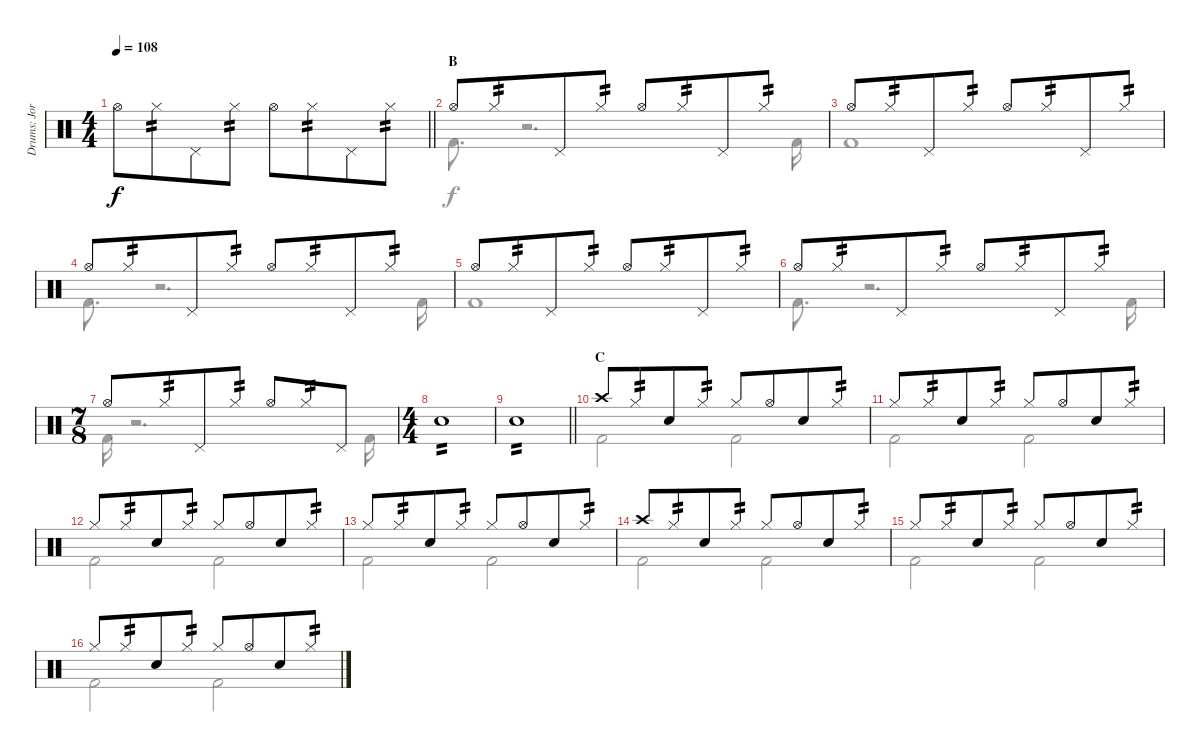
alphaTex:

\track ("Drums: Jorg" "Drums: Jor") {instrument percussion}
\staff {score}
\articulation defaults
\voice
\ts (4 4)
\tempo 108
\clef neutral
\barLineRight lightlight
\ks c "Hi-Hat (open)".8{dy f} "Hi-Hat (closed)".8{tp 2 beam merge} "Pedal Hi-Hat (hit)".8 "Hi-Hat (closed)".8{tp 2} "Hi-Hat (open)".8 "Hi-Hat (closed)".8{tp 2 beam merge} "Pedal Hi-Hat (hit)".8 "Hi-Hat (closed)".8{tp 2}
|
\section ("" "B")
"Hi-Hat (open)".8 "Hi-Hat (closed)".8{tp 2 beam merge} "Pedal Hi-Hat (hit)".8 "Hi-Hat (closed)".8{tp 2} "Hi-Hat (open)".8 "Hi-Hat (closed)".8{tp 2 beam merge} "Pedal Hi-Hat (hit)".8 "Hi-Hat (closed)".8{tp 2} |
"Hi-Hat (open)".8 "Hi-Hat (closed)".8{tp 2 beam merge} "Pedal Hi-Hat (hit)".8 "Hi-Hat (closed)".8{tp 2} "Hi-Hat (open)".8 "Hi-Hat (closed)".8{tp 2 beam merge} "Pedal Hi-Hat (hit)".8 "Hi-Hat (closed)".8{tp 2} |
"Hi-Hat (open)".8 "Hi-Hat (closed)".8{tp 2 beam merge} "Pedal Hi-Hat (hit)".8 "Hi-Hat (closed)".8{tp 2} "Hi-Hat (open)".8 "Hi-Hat (closed)".8{tp 2 beam merge} "Pedal Hi-Hat (hit)".8 "Hi-Hat (closed)".8{tp 2} |
"Hi-Hat (open)".8 "Hi-Hat (closed)".8{tp 2 beam merge} "Pedal Hi-Hat (hit)".8 "Hi-Hat (closed)".8{tp 2} "Hi-Hat (open)".8 "Hi-Hat (closed)".8{tp 2 beam merge} "Pedal Hi-Hat (hit)".8 "Hi-Hat (closed)".8{tp 2} |
"Hi-Hat (open)".8 "Hi-Hat (closed)".8{tp 2 beam merge} "Pedal Hi-Hat (hit)".8 "Hi-Hat (closed)".8{tp 2} "Hi-Hat (open)".8 "Hi-Hat (closed)".8{tp 2 beam merge} "Pedal Hi-Hat (hit)".8 "Hi-Hat (closed)".8{tp 2} |
\ts (7 8)
"Hi-Hat (open)".8 "Hi-Hat (closed)".8{tp 2 beam merge} "Pedal Hi-Hat (hit)".8 "Hi-Hat (closed)".8{tp 2} "Hi-Hat (open)".8 "Hi-Hat (closed)".8{tp 2 beam merge} "Pedal Hi-Hat (hit)".8 |
\ts (4 4)
"Snare (hit) 2".1{tp 2} |
\barLineRight lightlight "Snare (hit) 2".1{tp 2}
|
\section ("" "C")
"Crash high (hit)".8 "Hi-Hat (closed)".8{tp 2 beam merge} "Snare (hit) 2".8 "Hi-Hat (closed)".8{tp 2} "Hi-Hat (closed)".8 "Hi-Hat (open)".8{beam merge} "Snare (hit) 2".8 "Hi-Hat (closed)".8{tp 2} |
"Hi-Hat (closed)".8 "Hi-Hat (closed)".8{tp 2 beam merge} "Snare (hit) 2".8 "Hi-Hat (closed)".8{tp 2} "Hi-Hat (closed)".8 "Hi-Hat (open)".8{beam merge} "Snare (hit) 2".8 "Hi-Hat (closed)".8{tp 2} |
"Hi-Hat (closed)".8 "Hi-Hat (closed)".8{tp 2 beam merge} "Snare (hit) 2".8 "Hi-Hat (closed)".8{tp 2} "Hi-Hat (closed)".8 "Hi-Hat (open)".8{beam merge} "Snare (hit) 2".8 "Hi-Hat (closed)".8{tp 2} |
"Hi-Hat (closed)".8 "Hi-Hat (closed)".8{tp 2 beam merge} "Snare (hit) 2".8 "Hi-Hat (closed)".8{tp 2} "Hi-Hat (closed)".8 "Hi-Hat (open)".8{beam merge} "Snare (hit) 2".8 "Hi-Hat (closed)".8{tp 2} |
"Crash high (hit)".8 "Hi-Hat (closed)".8{tp 2 beam merge} "Snare (hit) 2".8 "Hi-Hat (closed)".8{tp 2} "Hi-Hat (closed)".8 "Hi-Hat (open)".8{beam merge} "Snare (hit) 2".8 "Hi-Hat (closed)".8{tp 2} |
"Hi-Hat (closed)".8 "Hi-Hat (closed)".8{tp 2 beam merge} "Snare (hit) 2".8 "Hi-Hat (closed)".8{tp 2} "Hi-Hat (closed)".8 "Hi-Hat (open)".8{beam merge} "Snare (hit) 2".8 "Hi-Hat (closed)".8{tp 2} |
"Hi-Hat (closed)".8 "Hi-Hat (closed)".8{tp 2 beam merge} "Snare (hit) 2".8 "Hi-Hat (closed)".8{tp 2} "Hi-Hat (closed)".8 "Hi-Hat (open)".8{beam merge} "Snare (hit) 2".8 "Hi-Hat (closed)".8{tp 2}
\voice
\clef neutral
\ottava regular
\simile none
\barLineRight lightlight
\ks c
|
"Kick (hit) 2".8{d} r.2{d} "Kick (hit) 2".16 |
"Kick (hit) 2".1 |
"Kick (hit) 2".8{d} r.2{d} "Kick (hit) 2".16 |
"Kick (hit) 2".1 |
"Kick (hit) 2".8{d} r.2{d} "Kick (hit) 2".16 |
"Kick (hit) 2".16 r.2{d} "Kick (hit) 2".16 |
|
\barLineRight lightlight
|
"Kick (hit) 2".2 "Kick (hit) 2".2 |
"Kick (hit) 2".2 "Kick (hit) 2".2 |
"Kick (hit) 2".2 "Kick (hit) 2".2 |
"Kick (hit) 2".2 "Kick (hit) 2".2 |
"Kick (hit) 2".2 "Kick (hit) 2".2 |
"Kick (hit) 2".2 "Kick (hit) 2".2 |
"Kick (hit) 2".2 "Kick (hit) 2".2
